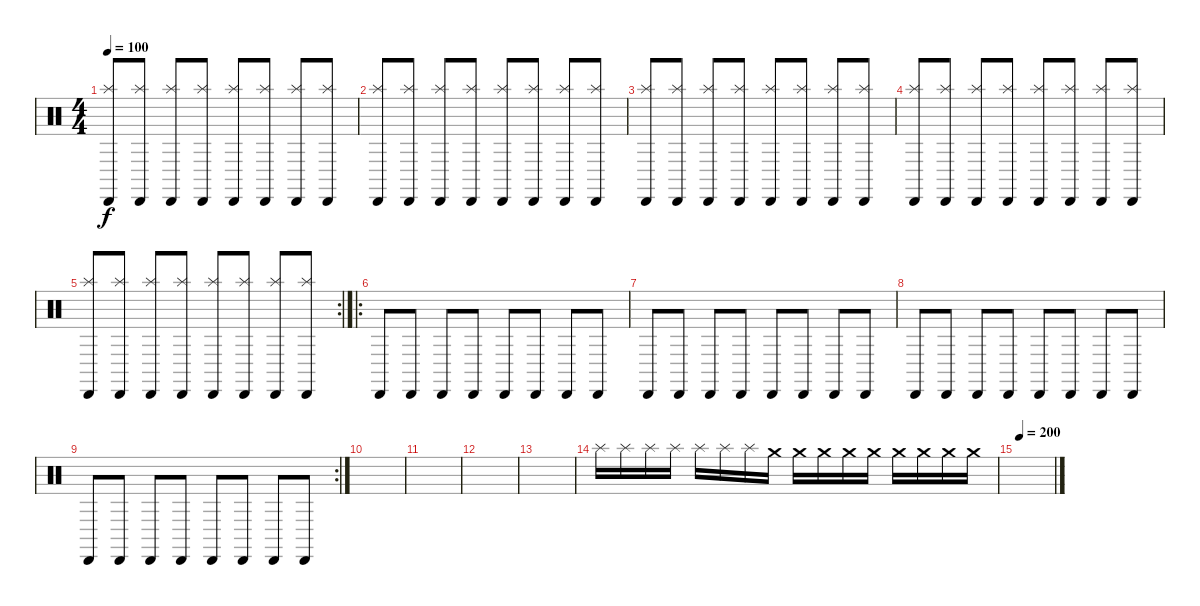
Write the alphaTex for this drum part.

\track "" {instrument percussion}
\staff {score}
\articulation defaults
\ts (4 4)
\tempo 100
\clef neutral
\ks c
("Cabasa (hit)" "Splash (hit)").8{dy f} ("Cabasa (hit)" "Splash (hit)").8 ("Cabasa (hit)" "Splash (hit)").8 ("Cabasa (hit)" "Splash (hit)").8 ("Cabasa (hit)" "Splash (hit)").8 ("Cabasa (hit)" "Splash (hit)").8 ("Cabasa (hit)" "Splash (hit)").8 ("Cabasa (hit)" "Splash (hit)").8 |
("Cabasa (hit)" "Splash (hit)").8 ("Cabasa (hit)" "Splash (hit)").8 ("Cabasa (hit)" "Splash (hit)").8 ("Cabasa (hit)" "Splash (hit)").8 ("Cabasa (hit)" "Splash (hit)").8 ("Cabasa (hit)" "Splash (hit)").8 ("Cabasa (hit)" "Splash (hit)").8 ("Cabasa (hit)" "Splash (hit)").8 |
("Cabasa (hit)" "Splash (hit)").8 ("Cabasa (hit)" "Splash (hit)").8 ("Cabasa (hit)" "Splash (hit)").8 ("Cabasa (hit)" "Splash (hit)").8 ("Cabasa (hit)" "Splash (hit)").8 ("Cabasa (hit)" "Splash (hit)").8 ("Cabasa (hit)" "Splash (hit)").8 ("Cabasa (hit)" "Splash (hit)").8 |
("Cabasa (hit)" "Splash (hit)").8 ("Cabasa (hit)" "Splash (hit)").8 ("Cabasa (hit)" "Splash (hit)").8 ("Cabasa (hit)" "Splash (hit)").8 ("Cabasa (hit)" "Splash (hit)").8 ("Cabasa (hit)" "Splash (hit)").8 ("Cabasa (hit)" "Splash (hit)").8 ("Cabasa (hit)" "Splash (hit)").8 |
\rc 2
("Cabasa (hit)" "Splash (hit)").8 ("Cabasa (hit)" "Splash (hit)").8 ("Cabasa (hit)" "Splash (hit)").8 ("Cabasa (hit)" "Splash (hit)").8 ("Cabasa (hit)" "Splash (hit)").8 ("Cabasa (hit)" "Splash (hit)").8 ("Cabasa (hit)" "Splash (hit)").8 ("Cabasa (hit)" "Splash (hit)").8 |
\ro "Cabasa (hit)".8 "Cabasa (hit)".8 "Cabasa (hit)".8 "Cabasa (hit)".8 "Cabasa (hit)".8 "Cabasa (hit)".8 "Cabasa (hit)".8 "Cabasa (hit)".8
|
"Cabasa (hit)".8 "Cabasa (hit)".8 "Cabasa (hit)".8 "Cabasa (hit)".8 "Cabasa (hit)".8 "Cabasa (hit)".8 "Cabasa (hit)".8 "Cabasa (hit)".8 |
"Cabasa (hit)".8 "Cabasa (hit)".8 "Cabasa (hit)".8 "Cabasa (hit)".8 "Cabasa (hit)".8 "Cabasa (hit)".8 "Cabasa (hit)".8 "Cabasa (hit)".8 |
\rc 2 "Cabasa (hit)".8 "Cabasa (hit)".8 "Cabasa (hit)".8 "Cabasa (hit)".8 "Cabasa (hit)".8 "Cabasa (hit)".8 "Cabasa (hit)".8 "Cabasa (hit)".8
|
|
|
|
|
"Splash (hit)".16 "Splash (hit)".16 "Splash (hit)".16 "Splash (hit)".16 "Splash (hit)".16 "Splash (hit)".16 "Splash (hit)".16 "Crash medium (hit)".16 "Crash medium (hit)".16 "Crash medium (hit)".16 "Crash medium (hit)".16 "Crash medium (hit)".16 "Crash medium (hit)".16 "Crash medium (hit)".16 "Crash medium (hit)".16 "Crash medium (hit)".16 |
\tempo (200 0.0625)
